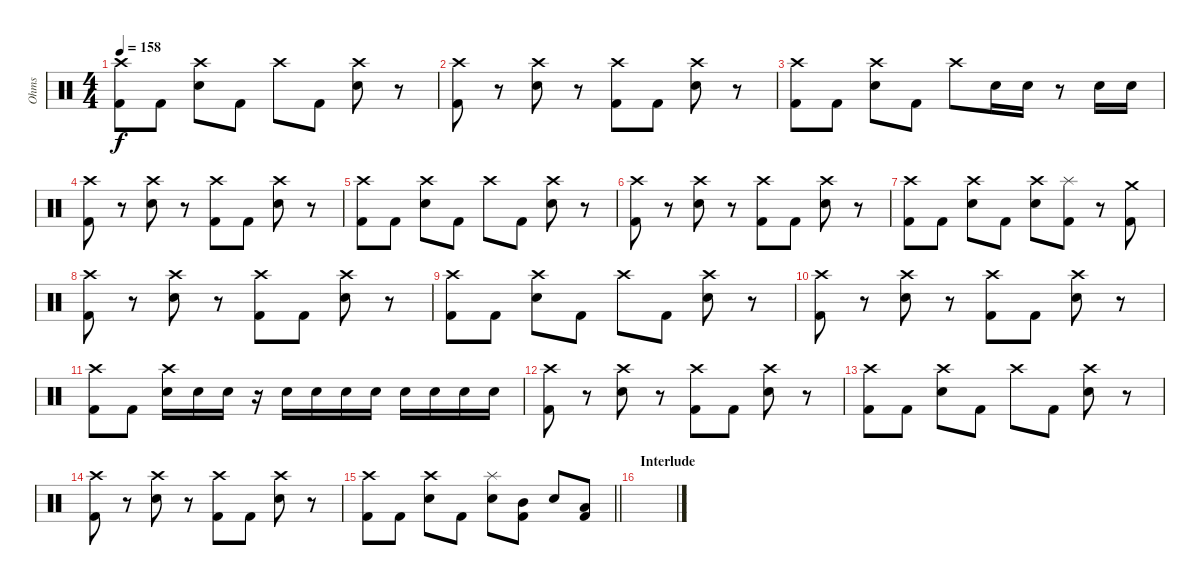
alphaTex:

\track ("Ohms" "Ohms") {instrument percussion}
\staff {score}
\articulation defaults
\ts (4 4)
\tempo 158
\clef neutral
\ks c
("Crash high (hit)" "Kick (hit) 2").8{dy f} "Kick (hit) 2".8 ("Crash high (hit)" "Snare (hit) 2").8 "Kick (hit) 2".8 "Crash high (hit)".8 "Kick (hit) 2".8 ("Crash high (hit)" "Snare (hit) 2").8 r.8 |
("Crash high (hit)" "Kick (hit) 2").8 r.8 ("Crash high (hit)" "Snare (hit) 2").8 r.8 ("Crash high (hit)" "Kick (hit) 2").8 "Kick (hit) 2".8 ("Crash high (hit)" "Snare (hit) 2").8 r.8 |
("Crash high (hit)" "Kick (hit) 2").8 "Kick (hit) 2".8 ("Crash high (hit)" "Snare (hit) 2").8 "Kick (hit) 2".8 "Crash high (hit)".8 "Snare (hit) 2".16 "Snare (hit) 2".16 r.8 "Snare (hit) 2".16 "Snare (hit) 2".16 |
("Crash high (hit)" "Kick (hit) 2").8 r.8 ("Crash high (hit)" "Snare (hit) 2").8 r.8 ("Crash high (hit)" "Kick (hit) 2").8 "Kick (hit) 2".8 ("Crash high (hit)" "Snare (hit) 2").8 r.8 |
("Crash high (hit)" "Kick (hit) 2").8 "Kick (hit) 2".8 ("Crash high (hit)" "Snare (hit) 2").8 "Kick (hit) 2".8 "Crash high (hit)".8 "Kick (hit) 2".8 ("Crash high (hit)" "Snare (hit) 2").8 r.8 |
("Crash high (hit)" "Kick (hit) 2").8 r.8 ("Crash high (hit)" "Snare (hit) 2").8 r.8 ("Crash high (hit)" "Kick (hit) 2").8 "Kick (hit) 2".8 ("Crash high (hit)" "Snare (hit) 2").8 r.8 |
("Crash high (hit)" "Kick (hit) 2").8 "Kick (hit) 2".8 ("Crash high (hit)" "Snare (hit) 2").8 "Kick (hit) 2".8 ("Crash high (hit)" "Snare (hit) 2").8 ("Splash (hit)" "Kick (hit) 2").8 r.8 ("Crash medium (hit)" "Kick (hit) 2").8 |
("Crash high (hit)" "Kick (hit) 2").8 r.8 ("Crash high (hit)" "Snare (hit) 2").8 r.8 ("Crash high (hit)" "Kick (hit) 2").8 "Kick (hit) 2".8 ("Crash high (hit)" "Snare (hit) 2").8 r.8 |
("Crash high (hit)" "Kick (hit) 2").8 "Kick (hit) 2".8 ("Crash high (hit)" "Snare (hit) 2").8 "Kick (hit) 2".8 "Crash high (hit)".8 "Kick (hit) 2".8 ("Crash high (hit)" "Snare (hit) 2").8 r.8 |
("Crash high (hit)" "Kick (hit) 2").8 r.8 ("Crash high (hit)" "Snare (hit) 2").8 r.8 ("Crash high (hit)" "Kick (hit) 2").8 "Kick (hit) 2".8 ("Crash high (hit)" "Snare (hit) 2").8 r.8 |
("Crash high (hit)" "Kick (hit) 2").8 "Kick (hit) 2".8 ("Crash high (hit)" "Snare (hit) 2").16 "Snare (hit) 2".16 "Snare (hit) 2".16 r.16 "Snare (hit) 2".16 "Snare (hit) 2".16 "Snare (hit) 2".16 "Snare (hit) 2".16 "Snare (hit) 2".16 "Snare (hit) 2".16 "Snare (hit) 2".16 "Snare (hit) 2".16 |
("Crash high (hit)" "Kick (hit) 2").8 r.8 ("Crash high (hit)" "Snare (hit) 2").8 r.8 ("Crash high (hit)" "Kick (hit) 2").8 "Kick (hit) 2".8 ("Crash high (hit)" "Snare (hit) 2").8 r.8 |
("Crash high (hit)" "Kick (hit) 2").8 "Kick (hit) 2".8 ("Crash high (hit)" "Snare (hit) 2").8 "Kick (hit) 2".8 "Crash high (hit)".8 "Kick (hit) 2".8 ("Crash high (hit)" "Snare (hit) 2").8 r.8 |
("Crash high (hit)" "Kick (hit) 2").8 r.8 ("Crash high (hit)" "Snare (hit) 2").8 r.8 ("Crash high (hit)" "Kick (hit) 2").8 "Kick (hit) 2".8 ("Crash high (hit)" "Snare (hit) 2").8 r.8 |
\barLineRight lightlight
("Crash high (hit)" "Kick (hit) 2").8 "Kick (hit) 2".8 ("Crash high (hit)" "Snare (hit) 2").8 "Kick (hit) 2".8 ("Splash (hit)" "Snare (hit) 2").8 ("Mid Tom (hit)" "Kick (hit) 2").8 "Snare (hit) 2".8 ("Low Tom (hit)" "Kick (hit) 2").8 |
\section ("" "Interlude")
